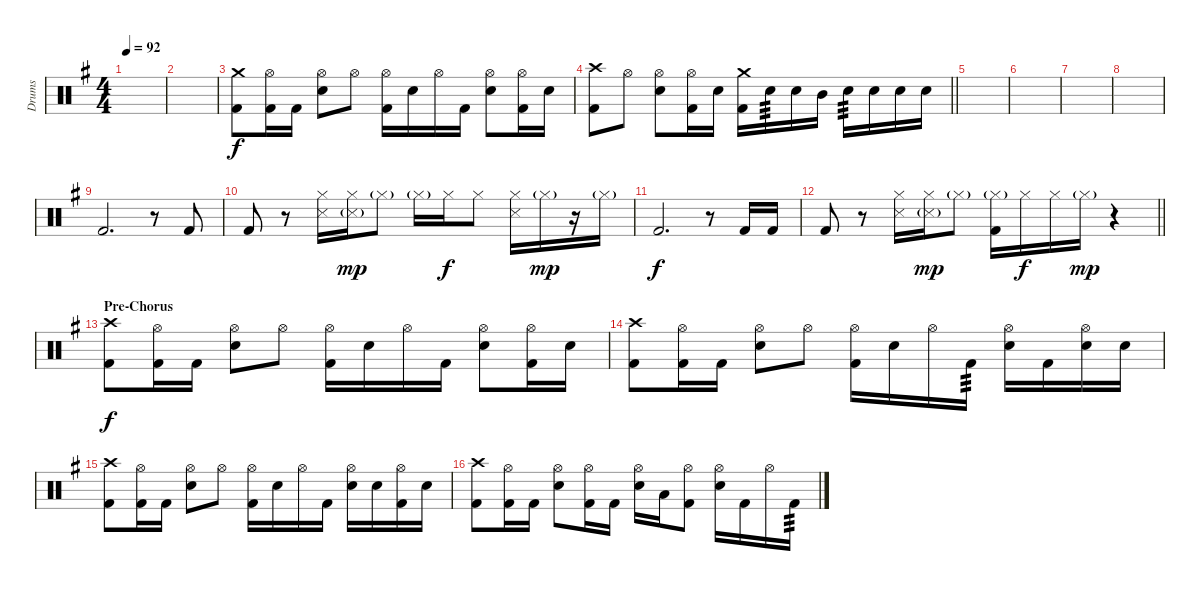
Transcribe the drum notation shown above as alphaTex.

\track ("Drums" "Drums") {instrument percussion}
\staff {score}
\articulation defaults
\ts (4 4)
\tempo 92
\clef neutral
\ks g
|
|
("Crash medium (hit)" "Kick (hit) 2").8 ("Hi-Hat (open)" "Kick (hit) 2").16 "Kick (hit) 2".16 ("Hi-Hat (open)" "Electric Snare (hit)").8 "Hi-Hat (open)".8 ("Hi-Hat (open)" "Kick (hit) 2").16 "Electric Snare (hit)".16 "Hi-Hat (open)".16 "Kick (hit) 2".16 ("Hi-Hat (open)" "Electric Snare (hit)").8 ("Hi-Hat (open)" "Kick (hit) 2").16 "Electric Snare (hit)".16 |
\barLineRight lightlight
("Crash high (hit)" "Kick (hit) 2").8 "Hi-Hat (open)".8 ("Hi-Hat (open)" "Electric Snare (hit)").8 ("Hi-Hat (open)" "Kick (hit) 2").16 "Electric Snare (hit)".16 ("Crash medium (hit)" "Kick (hit) 2").16 "Electric Snare (hit)".16{tp 3} "Electric Snare (hit)".16 "Mid Tom (hit)".16 "Electric Snare (hit)".16{tp 3} "Electric Snare (hit)".16 "Electric Snare (hit)".16 "Electric Snare (hit)".16 |
\section ("" "")
|
|
|
|
"Kick (hit) 2".2{d} r.8 "Kick (hit) 2".8 |
"Kick (hit) 2".8 r.8 ("Hi-Hat (closed)" "Snare (side stick) 3").16 ("Hi-Hat (closed)" "Snare (side stick) 3"{g}).16{dy mp} "Hi-Hat (closed)"{g}.8 "Hi-Hat (closed)"{g}.16 "Hi-Hat (closed)".16{dy f} "Hi-Hat (closed)".8 ("Hi-Hat (closed)" "Snare (side stick) 3").16 "Hi-Hat (closed)"{g}.16{dy mp} r.16 "Hi-Hat (closed)"{g}.16 |
"Kick (hit) 2".2{d dy f} r.8 "Kick (hit) 2".16 "Kick (hit) 2".16 |
\barLineRight lightlight "Kick (hit) 2".8
r.8 ("Hi-Hat (closed)" "Snare (side stick) 3").16 ("Hi-Hat (closed)" "Snare (side stick) 3"{g}).16{dy mp} "Hi-Hat (closed)"{g}.8 ("Hi-Hat (closed)"{g} "Kick (hit) 2").16 "Hi-Hat (closed)".16{dy f} "Hi-Hat (closed)".16 "Hi-Hat (closed)"{g}.16{dy mp} r.4 |
\section ("" "Pre-Chorus")
("Crash high (hit)" "Kick (hit) 2").8{dy f} ("Hi-Hat (open)" "Kick (hit) 2").16 "Kick (hit) 2".16 ("Hi-Hat (open)" "Electric Snare (hit)").8 "Hi-Hat (open)".8 ("Hi-Hat (open)" "Kick (hit) 2").16 "Electric Snare (hit)".16 "Hi-Hat (open)".16 "Kick (hit) 2".16 ("Hi-Hat (open)" "Electric Snare (hit)").8 ("Hi-Hat (open)" "Kick (hit) 2").16 "Electric Snare (hit)".16 |
("Crash high (hit)" "Kick (hit) 2").8 ("Hi-Hat (open)" "Kick (hit) 2").16 "Kick (hit) 2".16 ("Hi-Hat (open)" "Electric Snare (hit)").8 "Hi-Hat (open)".8 ("Hi-Hat (open)" "Kick (hit) 2").16 "Electric Snare (hit)".16 "Hi-Hat (open)".16 "Kick (hit) 2".16{tp 3} ("Hi-Hat (open)" "Electric Snare (hit)").16 "Kick (hit) 2".16 ("Hi-Hat (open)" "Electric Snare (hit)").16 "Electric Snare (hit)".16 |
("Crash high (hit)" "Kick (hit) 2").8 ("Hi-Hat (open)" "Kick (hit) 2").16 "Kick (hit) 2".16 ("Hi-Hat (open)" "Electric Snare (hit)").8 "Hi-Hat (open)".8 ("Hi-Hat (open)" "Kick (hit) 2").16 "Electric Snare (hit)".16 "Hi-Hat (open)".16 "Kick (hit) 2".16 ("Hi-Hat (open)" "Electric Snare (hit)").16 "Electric Snare (hit)".16 ("Hi-Hat (open)" "Kick (hit) 2").16 "Electric Snare (hit)".16 |
("Crash high (hit)" "Kick (hit) 2").8 ("Hi-Hat (open)" "Kick (hit) 2").16 "Kick (hit) 2".16 ("Hi-Hat (open)" "Electric Snare (hit)").8 ("Hi-Hat (open)" "Kick (hit) 2").16 "Kick (hit) 2".16 ("Hi-Hat (open)" "Electric Snare (hit)").16 "Low Tom (hit)".16 ("Hi-Hat (open)" "Kick (hit) 2").8 ("Hi-Hat (open)" "Electric Snare (hit)").16 "Kick (hit) 2".16 "Hi-Hat (open)".16 "Kick (hit) 2".16{tp 3}
